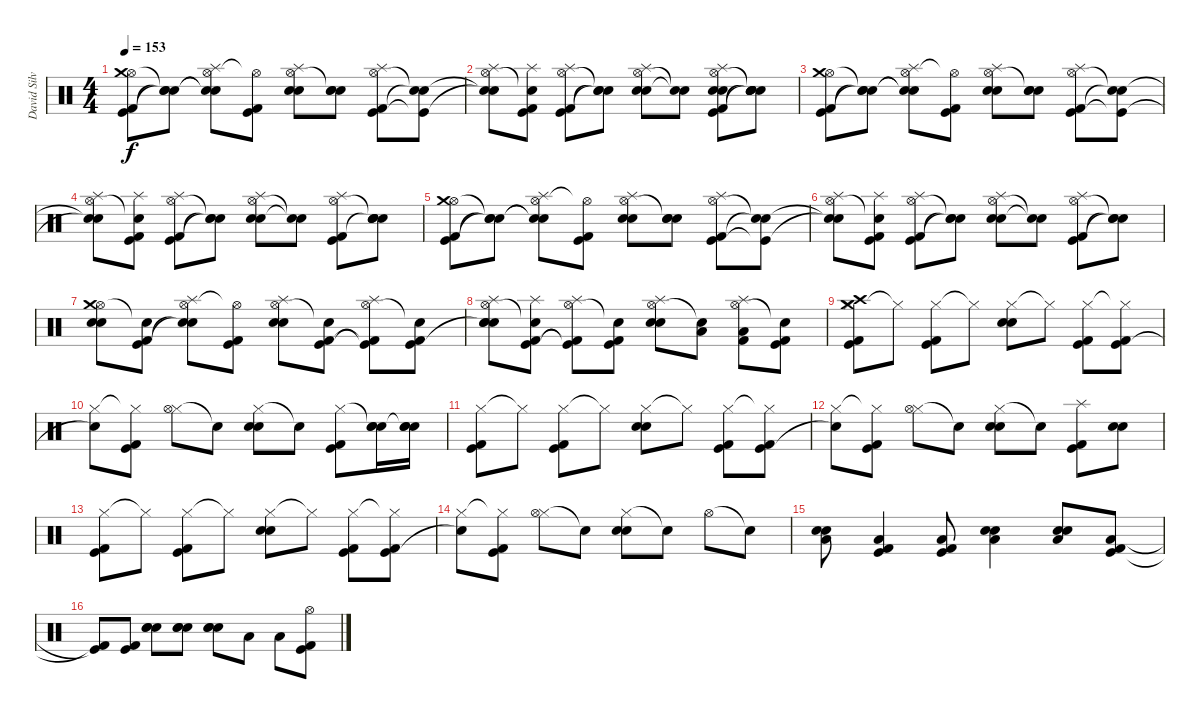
\track ("David Silveria" "David Silv") {instrument percussion}
\staff {score}
\articulation defaults
\ts (4 4)
\tempo 153
\clef neutral
\ks c
("Hi-Hat (open)" "Kick (hit) 2" "Kick (hit)" "Crash medium (hit)").8{dy f} ("Snare (hit)"{t} "Snare (hit)"{t} "Snare (hit)"{t}).8 ("Hi-Hat (open)" "Snare (hit)"{t} "Snare (hit)"{t} "Splash (hit)").8 ("Hi-Hat (open)"{t} "Kick (hit)" "Kick (hit) 2").8 ("Hi-Hat (open)" "Electric Snare (hit)" "Splash (hit)" "Snare (hit) 2").8 ("Snare (hit)"{t} "Electric Snare (hit)" "Snare (hit) 2").8 ("Hi-Hat (open)" "Kick (hit)" "Kick (hit) 2" "Splash (hit)").8 ("Snare (hit)"{t} "Kick (hit)"{t} "Snare (hit)"{t}).8 |
("Hi-Hat (open)" "Snare (hit)"{t} "Snare (hit)"{t} "Splash (hit)").8 ("Snare (hit)"{t} "Kick (hit) 2" "Kick (hit)" "Splash (hit)").8 ("Hi-Hat (open)" "Kick (hit)" "Kick (hit) 2" "Splash (hit)").8 ("Snare (hit)"{t} "Snare (hit)"{t} "Snare (hit)"{t}).8 ("Hi-Hat (open)" "Electric Snare (hit)" "Splash (hit)" "Snare (hit) 2").8 ("Snare (hit)"{t} "Snare (hit)"{t}).8 ("Hi-Hat (open)" "Kick (hit)" "Kick (hit) 2" "Splash (hit)" "Electric Snare (hit)" "Snare (hit) 2").8 ("Snare (hit)"{t} "Snare (hit)"{t} "Snare (hit)"{t} "Electric Snare (hit)" "Snare (hit) 2").8 |
("Hi-Hat (open)" "Kick (hit) 2" "Kick (hit)" "Crash medium (hit)").8 ("Snare (hit)"{t} "Snare (hit)"{t} "Snare (hit)"{t}).8 ("Hi-Hat (open)" "Snare (hit)"{t} "Snare (hit)"{t} "Splash (hit)").8 ("Hi-Hat (open)"{t} "Kick (hit)" "Kick (hit) 2").8 ("Hi-Hat (open)" "Electric Snare (hit)" "Splash (hit)" "Snare (hit) 2").8 ("Snare (hit)"{t} "Electric Snare (hit)" "Snare (hit) 2").8 ("Hi-Hat (open)" "Kick (hit)" "Kick (hit) 2" "Splash (hit)").8 ("Snare (hit)"{t} "Kick (hit)"{t} "Snare (hit)"{t}).8 |
("Hi-Hat (open)" "Snare (hit)"{t} "Snare (hit)"{t} "Splash (hit)").8 ("Snare (hit)"{t} "Kick (hit) 2" "Kick (hit)" "Splash (hit)").8 ("Hi-Hat (open)" "Kick (hit)" "Kick (hit) 2" "Splash (hit)").8 ("Snare (hit)"{t} "Snare (hit)"{t} "Snare (hit)"{t}).8 ("Hi-Hat (open)" "Electric Snare (hit)" "Splash (hit)" "Snare (hit) 2").8 ("Snare (hit)"{t} "Snare (hit)"{t}).8 ("Hi-Hat (open)" "Kick (hit)" "Kick (hit) 2" "Splash (hit)").8 ("Snare (hit)"{t} "Electric Snare (hit)" "Snare (hit)"{t} "Snare (hit) 2").8 |
("Hi-Hat (open)" "Kick (hit) 2" "Kick (hit)" "Crash medium (hit)").8 ("Snare (hit)"{t} "Snare (hit)"{t} "Snare (hit)"{t}).8 ("Hi-Hat (open)" "Snare (hit)"{t} "Snare (hit)"{t} "Splash (hit)").8 ("Hi-Hat (open)"{t} "Kick (hit)" "Kick (hit) 2").8 ("Hi-Hat (open)" "Electric Snare (hit)" "Splash (hit)" "Snare (hit) 2").8 ("Snare (hit)"{t} "Electric Snare (hit)" "Snare (hit) 2").8 ("Hi-Hat (open)" "Kick (hit)" "Kick (hit) 2" "Splash (hit)").8 ("Snare (hit)"{t} "Kick (hit)"{t} "Snare (hit)"{t}).8 |
("Hi-Hat (open)" "Snare (hit)"{t} "Snare (hit)"{t} "Splash (hit)").8 ("Snare (hit)"{t} "Kick (hit) 2" "Kick (hit)" "Splash (hit)").8 ("Hi-Hat (open)" "Kick (hit)" "Kick (hit) 2" "Splash (hit)").8 ("Snare (hit)"{t} "Snare (hit)"{t} "Snare (hit)"{t}).8 ("Hi-Hat (open)" "Electric Snare (hit)" "Splash (hit)" "Snare (hit) 2").8 ("Snare (hit)"{t} "Snare (hit)"{t}).8 ("Hi-Hat (open)" "Kick (hit)" "Kick (hit) 2" "Splash (hit)").8 ("Snare (hit)"{t} "Snare (hit)"{t} "Snare (hit)"{t}).8 |
("Hi-Hat (open)" "Electric Snare (hit)" "Crash medium (hit)" "Snare (hit) 2").8 ("Snare (hit)"{t} "Kick (hit)" "Kick (hit) 2").8 ("Hi-Hat (open)" "Snare (hit)"{t} "Snare (hit)"{t} "Splash (hit)").8 ("Hi-Hat (open)"{t} "Kick (hit)" "Kick (hit) 2").8 ("Hi-Hat (open)" "Electric Snare (hit)" "Splash (hit)" "Snare (hit) 2").8 ("Snare (hit)"{t} "Kick (hit) 2" "Kick (hit)").8 ("Hi-Hat (open)" "Kick (hit)"{t} "Kick (hit) 2"{t} "Splash (hit)").8 ("Snare (hit)"{t} "Kick (hit) 2" "Kick (hit)").8 |
("Hi-Hat (open)" "Electric Snare (hit)" "Snare (hit)"{t} "Splash (hit)" "Snare (hit) 2").8 ("Snare (hit)"{t} "Kick (hit) 2" "Kick (hit)" "Splash (hit)").8 ("Hi-Hat (open)" "Kick (hit)"{t} "Kick (hit) 2"{t} "Splash (hit)").8 ("Snare (hit)"{t} "Kick (hit) 2" "Kick (hit)").8 ("Hi-Hat (open)" "Electric Snare (hit)" "Splash (hit)" "Snare (hit) 2").8 ("Snare (hit)"{t} "Low Tom (hit)").8 ("Hi-Hat (open)" "Low Floor Tom (hit)" "Kick (hit) 2" "Splash (hit)").8 ("Snare (hit)"{t} "Kick (hit) 2" "Kick (hit)").8 |
("Hi-Hat (closed)" "Kick (hit)" "Crash high (hit)" "Kick (hit) 2" "Crash medium (hit)").8 "Hi-Hat (closed)"{t}.8 ("Hi-Hat (closed)" "Kick (hit)" "Kick (hit) 2").8 "Hi-Hat (closed)"{t}.8 ("Hi-Hat (closed)" "Electric Snare (hit)" "Snare (hit) 2").8 "Hi-Hat (closed)"{t}.8 ("Hi-Hat (closed)" "Kick (hit)" "Kick (hit) 2").8 ("Hi-Hat (closed)"{t} "Kick (hit)" "Kick (hit) 2").8 |
("Hi-Hat (closed)" "Snare (hit)"{t}).8 ("Hi-Hat (closed)"{t} "Kick (hit)" "Kick (hit) 2").8 ("Hi-Hat (closed)" "Hi-Hat (open)").8 "Electric Snare (hit)"{t}.8 ("Hi-Hat (closed)" "Electric Snare (hit)" "Snare (hit) 2").8 "Snare (hit)"{t}.8 ("Hi-Hat (closed)" "Kick (hit)" "Kick (hit) 2").8 ("Snare (hit)"{t} "Electric Snare (hit)" "Snare (hit) 2").16 ("Snare (hit)"{t} "Electric Snare (hit)" "Snare (hit) 2").16 |
("Hi-Hat (closed)" "Kick (hit)" "Kick (hit) 2").8 "Hi-Hat (closed)"{t}.8 ("Hi-Hat (closed)" "Kick (hit)" "Kick (hit) 2").8 "Hi-Hat (closed)"{t}.8 ("Hi-Hat (closed)" "Electric Snare (hit)" "Snare (hit) 2").8 "Hi-Hat (closed)"{t}.8 ("Hi-Hat (closed)" "Kick (hit)" "Kick (hit) 2").8 ("Hi-Hat (closed)"{t} "Kick (hit)" "Kick (hit) 2").8 |
("Hi-Hat (closed)" "Snare (hit)"{t}).8 ("Hi-Hat (closed)"{t} "Kick (hit)" "Kick (hit) 2").8 ("Hi-Hat (closed)" "Hi-Hat (open)").8 "Electric Snare (hit)"{t}.8 ("Hi-Hat (closed)" "Electric Snare (hit)" "Snare (hit) 2").8 "Snare (hit)"{t}.8 ("Splash (hit)" "Kick (hit)" "Kick (hit) 2").8 ("Electric Snare (hit)" "Snare (hit) 2").8 |
("Hi-Hat (closed)" "Kick (hit)" "Kick (hit) 2").8 "Hi-Hat (closed)"{t}.8 ("Hi-Hat (closed)" "Kick (hit)" "Kick (hit) 2").8 "Hi-Hat (closed)"{t}.8 ("Hi-Hat (closed)" "Electric Snare (hit)" "Snare (hit) 2").8 "Hi-Hat (closed)"{t}.8 ("Hi-Hat (closed)" "Kick (hit)" "Kick (hit) 2").8 ("Hi-Hat (closed)"{t} "Kick (hit)" "Kick (hit) 2").8 |
("Hi-Hat (closed)" "Snare (hit)"{t}).8 ("Hi-Hat (closed)"{t} "Kick (hit)" "Kick (hit) 2").8 ("Hi-Hat (closed)" "Hi-Hat (open)").8 "Electric Snare (hit)"{t}.8 ("Hi-Hat (closed)" "Electric Snare (hit)" "Snare (hit) 2").8 "Snare (hit)"{t}.8 "Hi-Hat (open)".8 "Electric Snare (hit)"{t}.8 |
("Low Tom (hit)" "Electric Snare (hit)" "Snare (hit) 2").8 ("Low Floor Tom (hit)" "Kick (hit)" "Kick (hit) 2").4 ("Low Floor Tom (hit)" "Kick (hit)" "Kick (hit) 2").8 ("Low Tom (hit)" "Electric Snare (hit)" "Snare (hit) 2").4 ("Low Tom (hit)" "Electric Snare (hit)" "Snare (hit) 2").8 ("Low Floor Tom (hit)" "Kick (hit)" "Kick (hit) 2").8 |
("Kick (hit)"{t} "Kick (hit) 2"{t}).8 ("Kick (hit)" "Kick (hit) 2").8 ("Snare (hit) 2" "Electric Snare (hit)" "Snare (hit) 2").8 ("Snare (hit) 2" "Electric Snare (hit)" "Snare (hit) 2").8 ("Snare (hit) 2" "Electric Snare (hit)" "Snare (hit) 2").8 "Low Tom (hit)".8 "Low Floor Tom (hit)".8 ("Hi-Hat (open)" "Kick (hit) 2" "Kick (hit)").8
